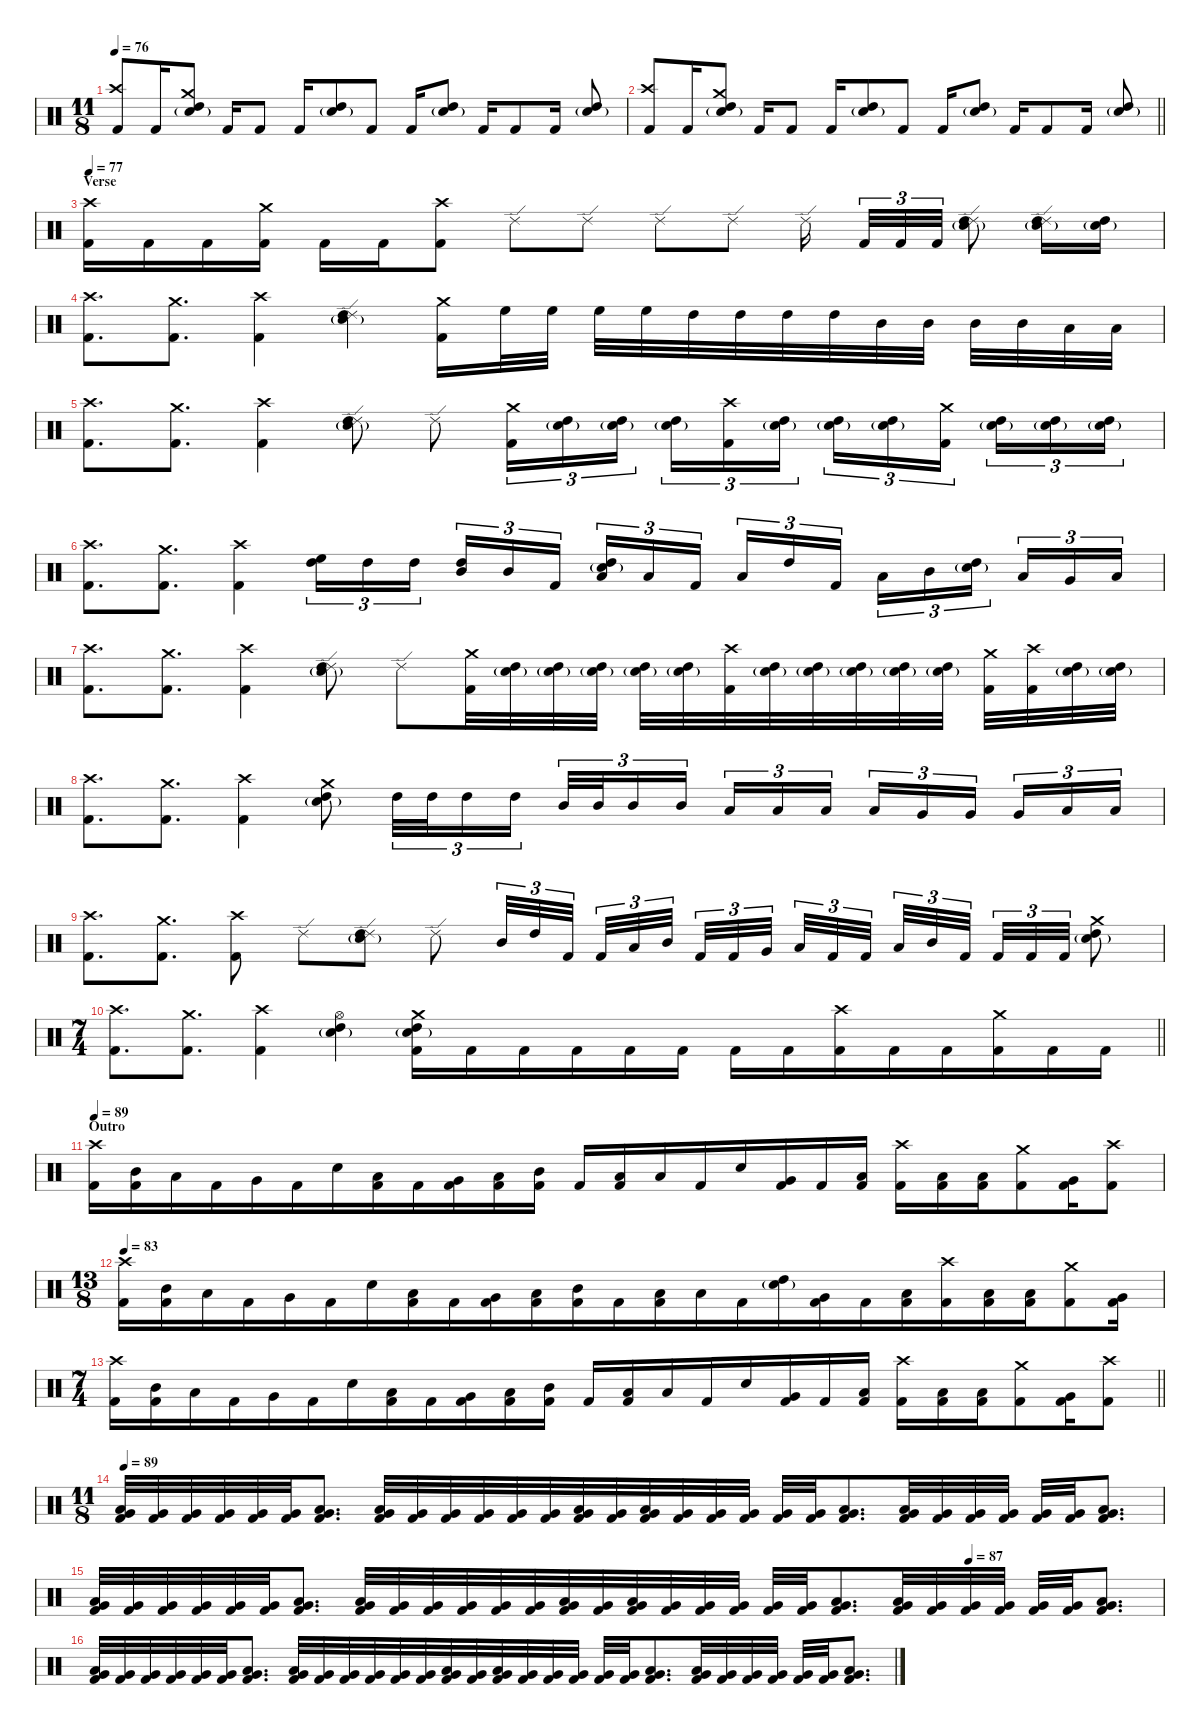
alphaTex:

\defaultSystemsLayout 4
\hideDynamics
\bracketExtendMode nobrackets
\singleTrackTrackNamePolicy hidden
\multiTrackTrackNamePolicy hidden
\otherSystemsTrackNameOrientation horizontal
\track ("Drums" "drm.") {instrument percussion}
\staff {score}
\articulation defaults
\ts (11 8)
\tempo 76
\clef neutral
\ks c
("Crash high (hit)" "Kick (hit) 2").8{dy f beam Up} "Kick (hit) 2".16{beam Up} ("Crash medium (hit)" "High Tom (hit)" "Snare (hit) 2"{g}).8{beam Up} "Kick (hit) 2".16{beam Up} "Kick (hit) 2".8{beam Up} "Kick (hit) 2".16{beam Up} ("High Tom (hit)" "Snare (hit) 2"{g}).8{beam Up} "Kick (hit) 2".8{beam Up} "Kick (hit) 2".16{beam Up} ("High Tom (hit)" "Snare (hit) 2"{g}).8{beam Up} "Kick (hit) 2".16{beam Up} "Kick (hit) 2".8{beam Up} "Kick (hit) 2".16{beam Up} ("High Tom (hit)" "Snare (hit) 2"{g}).8{beam Up} |
\barLineRight lightlight
("Crash high (hit)" "Kick (hit) 2").8{beam Up} "Kick (hit) 2".16{beam Up} ("Crash medium (hit)" "High Tom (hit)" "Snare (hit) 2"{g}).8{beam Up} "Kick (hit) 2".16{beam Up} "Kick (hit) 2".8{beam Up} "Kick (hit) 2".16{beam Up} ("High Tom (hit)" "Snare (hit) 2"{g}).8{beam Up} "Kick (hit) 2".8{beam Up} "Kick (hit) 2".16{beam Up} ("High Tom (hit)" "Snare (hit) 2"{g}).8{beam Up} "Kick (hit) 2".16{beam Up} "Kick (hit) 2".8{beam Up} "Kick (hit) 2".16{beam Up} ("High Tom (hit)" "Snare (hit) 2"{g}).8{beam Up} |
\section ("" "Verse")
\tempo 77
("Crash high (hit)" "Kick (hit) 2").16{beam Down} "Kick (hit) 2".16{beam Down} "Kick (hit) 2".16{beam Down} ("Crash medium (hit)" "Kick (hit) 2").16{beam Down} "Kick (hit) 2".16{beam Down} "Kick (hit) 2".16{beam Down} ("Crash high (hit)" "Kick (hit) 2").8{beam Down} "Ride (edge) 2".8{beam Down} "Ride (edge) 2".8{beam Down} "Ride (edge) 2".8{beam Down} "Ride (edge) 2".8{beam Down} "Ride (edge) 2".16{beam Down} "Kick (hit) 2".32{tu (3 2) beam Up} "Kick (hit) 2".32{tu (3 2) beam Up} "Kick (hit) 2".32{tu (3 2) beam Up} ("Ride (edge) 2" "High Tom (hit)" "Snare (hit) 2"{g}).8{beam Down} ("Ride (edge) 2" "High Tom (hit)" "Snare (hit) 2"{g}).16{beam Down} ("High Tom (hit)" "Snare (hit) 2"{g}).16{beam Down} |
("Crash high (hit)" "Kick (hit) 2").8{d beam Down} ("Crash medium (hit)" "Kick (hit) 2").8{d beam Down} ("Crash high (hit)" "Kick (hit) 2").4{beam Down} ("Ride (edge) 2" "High Tom (hit)" "Snare (hit) 2"{g}).4{beam Down} ("Crash medium (hit)" "Kick (hit) 2").16{beam Down} "High Floor Tom (hit)".32{beam Down} "High Floor Tom (hit)".32{beam Down} "High Floor Tom (hit)".32{beam Down} "High Floor Tom (hit)".32{beam Down} "High Tom (hit)".32{beam Down} "High Tom (hit)".32{beam Down} "High Tom (hit)".32{beam Down} "High Tom (hit)".32{beam Down} "Mid Tom (hit)".32{beam Down} "Mid Tom (hit)".32{beam Down} "Mid Tom (hit)".32{beam Down} "Mid Tom (hit)".32{beam Down} "Low Tom (hit)".32{beam Down} "Low Tom (hit)".32{beam Down} |
("Crash high (hit)" "Kick (hit) 2").8{d beam Down} ("Crash medium (hit)" "Kick (hit) 2").8{d beam Down} ("Crash high (hit)" "Kick (hit) 2").4{beam Down} ("Ride (edge) 2" "High Tom (hit)" "Snare (hit) 2"{g}).8{beam Down} "Ride (edge) 2".8{beam Down} ("Crash medium (hit)" "Kick (hit) 2").16{tu (3 2) beam Down} ("High Tom (hit)" "Snare (hit) 2"{g}).16{tu (3 2) dy mf beam Down} ("High Tom (hit)" "Snare (hit) 2"{g}).16{tu (3 2) dy f beam Down} ("High Tom (hit)" "Snare (hit) 2"{g}).16{tu (3 2) beam Down} ("Crash high (hit)" "Kick (hit) 2").16{tu (3 2) beam Down} ("High Tom (hit)" "Snare (hit) 2"{g}).16{tu (3 2) dy mf beam Down} ("High Tom (hit)" "Snare (hit) 2"{g}).16{tu (3 2) dy f beam Down} ("High Tom (hit)" "Snare (hit) 2"{g}).16{tu (3 2) beam Down} ("Crash medium (hit)" "Kick (hit) 2").16{tu (3 2) beam Down} ("High Tom (hit)" "Snare (hit) 2"{g}).16{tu (3 2) dy mf beam Down} ("High Tom (hit)" "Snare (hit) 2"{g}).16{tu (3 2) dy f beam Down} ("High Tom (hit)" "Snare (hit) 2"{g}).16{tu (3 2) beam Down} |
("Crash high (hit)" "Kick (hit) 2").8{d beam Down} ("Crash medium (hit)" "Kick (hit) 2").8{d beam Down} ("Crash high (hit)" "Kick (hit) 2").4{beam Down} ("High Floor Tom (hit)" "High Tom (hit)").16{tu (3 2) beam Down} "High Tom (hit)".16{tu (3 2) beam Down} "High Tom (hit)".16{tu (3 2) beam Down} ("High Tom (hit)" "Mid Tom (hit)").16{tu (3 2) beam Up} "Mid Tom (hit)".16{tu (3 2) beam Up} "Kick (hit) 2".16{tu (3 2) beam Up} ("High Tom (hit)" "Snare (hit) 2"{g} "Low Tom (hit)").16{tu (3 2) beam Up} "Low Tom (hit)".16{tu (3 2) beam Up} "Kick (hit) 2".16{tu (3 2) beam Up} "Low Tom (hit)".16{tu (3 2) beam Up} "High Tom (hit)".16{tu (3 2) beam Up} "Kick (hit) 2".16{tu (3 2) beam Up} "Low Tom (hit)".16{tu (3 2) beam Down} "Mid Tom (hit)".16{tu (3 2) beam Down} ("High Tom (hit)" "Snare (hit) 2"{g}).16{tu (3 2) beam Down} "Low Tom (hit)".16{tu (3 2) beam Up} "Very Low Tom (hit)".16{tu (3 2) beam Up} "Low Floor Tom (hit)".16{tu (3 2) beam Up} |
("Crash high (hit)" "Kick (hit) 2").8{d beam Down} ("Crash medium (hit)" "Kick (hit) 2").8{d beam Down} ("Crash high (hit)" "Kick (hit) 2").4{beam Down} ("Ride (edge) 2" "High Tom (hit)" "Snare (hit) 2"{g}).8{beam Down} "Ride (edge) 2".8{beam Down} ("Crash medium (hit)" "Kick (hit) 2").32{beam Down} ("High Tom (hit)" "Snare (hit) 2"{g}).32{beam Down} ("High Tom (hit)" "Snare (hit) 2"{g}).32{beam Down} ("High Tom (hit)" "Snare (hit) 2"{g}).32{beam Down} ("High Tom (hit)" "Snare (hit) 2"{g}).32{beam Down} ("High Tom (hit)" "Snare (hit) 2"{g}).32{beam Down} ("Crash high (hit)" "Kick (hit) 2").32{beam Down} ("High Tom (hit)" "Snare (hit) 2"{g}).32{beam Down} ("High Tom (hit)" "Snare (hit) 2"{g}).32{beam Down} ("High Tom (hit)" "Snare (hit) 2"{g}).32{beam Down} ("High Tom (hit)" "Snare (hit) 2"{g}).32{beam Down} ("High Tom (hit)" "Snare (hit) 2"{g}).32{beam Down} ("Crash medium (hit)" "Kick (hit) 2").32{beam Down} ("Crash high (hit)" "Kick (hit) 2").32{beam Down} ("High Tom (hit)" "Snare (hit) 2"{g}).32{beam Down} ("High Tom (hit)" "Snare (hit) 2"{g}).32{beam Down} |
("Crash high (hit)" "Kick (hit) 2").8{d beam Down} ("Crash medium (hit)" "Kick (hit) 2").8{d beam Down} ("Crash high (hit)" "Kick (hit) 2").4{beam Down} ("Crash medium (hit)" "High Tom (hit)" "Snare (hit) 2"{g}).8{beam Down} "High Tom (hit)".32{tu (3 2) beam Down} "High Tom (hit)".32{tu (3 2) beam Down} "High Tom (hit)".16{tu (3 2) beam Down} "High Tom (hit)".16{tu (3 2) beam Down} "Mid Tom (hit)".32{tu (3 2) beam Up} "Mid Tom (hit)".32{tu (3 2) beam Up} "Mid Tom (hit)".16{tu (3 2) beam Up} "Mid Tom (hit)".16{tu (3 2) beam Up} "Low Tom (hit)".16{tu (3 2) beam Up} "Low Tom (hit)".16{tu (3 2) beam Up} "Low Tom (hit)".16{tu (3 2) beam Up} "Low Tom (hit)".16{tu (3 2) beam Up} "Very Low Tom (hit)".16{tu (3 2) beam Up} "Very Low Tom (hit)".16{tu (3 2) beam Up} "Very Low Tom (hit)".16{tu (3 2) beam Up} "Low Floor Tom (hit)".16{tu (3 2) beam Up} "Low Floor Tom (hit)".16{tu (3 2) beam Up} |
("Crash high (hit)" "Kick (hit) 2").8{d beam Down} ("Crash medium (hit)" "Kick (hit) 2").8{d beam Down} ("Crash high (hit)" "Kick (hit) 2").8{beam Down} "Ride (edge) 2".8{beam Down} ("Ride (edge) 2" "High Tom (hit)" "Snare (hit) 2"{g}).8{beam Down} "Ride (edge) 2".8{beam Down} "Mid Tom (hit)".32{tu (3 2) beam Up} "High Tom (hit)".32{tu (3 2) beam Up} "Kick (hit) 2".32{tu (3 2) beam Up} "Kick (hit) 2".32{tu (3 2) beam Up} "Low Tom (hit)".32{tu (3 2) beam Up} "Mid Tom (hit)".32{tu (3 2) beam Up} "Kick (hit) 2".32{tu (3 2) beam Up} "Kick (hit) 2".32{tu (3 2) beam Up} "Very Low Tom (hit)".32{tu (3 2) beam Up} "Low Tom (hit)".32{tu (3 2) beam Up} "Kick (hit) 2".32{tu (3 2) beam Up} "Kick (hit) 2".32{tu (3 2) beam Up} "Low Tom (hit)".32{tu (3 2) beam Up} "Mid Tom (hit)".32{tu (3 2) beam Up} "Kick (hit) 2".32{tu (3 2) beam Up} "Kick (hit) 2".32{tu (3 2) beam Up} "Kick (hit) 2".32{tu (3 2) beam Up} "Kick (hit) 2".32{tu (3 2) beam Up} ("Crash medium (hit)" "High Tom (hit)" "Snare (hit) 2"{g}).8{beam Down} |
\ts (7 4)
\beaming (8 6 4 4)
\barLineRight lightlight
("Crash high (hit)" "Kick (hit) 2").8{d beam Down} ("Crash medium (hit)" "Kick (hit) 2").8{d beam Down} ("Crash high (hit)" "Kick (hit) 2").4{beam Down} ("Hi-Hat (open)" "High Tom (hit)" "Snare (hit) 2"{g}).4{beam Down} ("Crash medium (hit)" "High Tom (hit)" "Snare (hit) 2"{g} "Kick (hit) 2").16{beam Down} "Kick (hit) 2".16{beam Down} "Kick (hit) 2".16{beam Down} "Kick (hit) 2".16{beam Down} "Kick (hit) 2".16{beam Down} "Kick (hit) 2".16{beam Down} "Kick (hit) 2".16{beam Down} "Kick (hit) 2".16{beam Down} ("Crash high (hit)" "Kick (hit) 2").16{beam Down} "Kick (hit) 2".16{beam Down} "Kick (hit) 2".16{beam Down} ("Crash medium (hit)" "Kick (hit) 2").16{beam Down} "Kick (hit) 2".16{beam Down} "Kick (hit) 2".16{beam Down} |
\section ("" "Outro")
\tempo 89
("Crash high (hit)" "Kick (hit) 2").16{beam Down} ("Mid Tom (hit)" "Kick (hit) 2").16{beam Down} "Low Floor Tom (hit)".16{beam Down} "Kick (hit) 2".16{beam Down} "Very Low Tom (hit)".16{beam Down} "Kick (hit) 2".16{beam Down} "Snare (hit) 2".16{beam Down} ("Low Tom (hit)" "Kick (hit) 2").16{beam Down} "Kick (hit) 2".16{beam Down} ("Very Low Tom (hit)" "Kick (hit) 2").16{beam Down} ("Low Floor Tom (hit)" "Kick (hit) 2").16{beam Down} ("Mid Tom (hit)" "Kick (hit) 2").16{beam Down} "Kick (hit) 2".16{beam Up} ("Low Tom (hit)" "Kick (hit) 2").16{beam Up} "Low Floor Tom (hit)".16{beam Up} "Kick (hit) 2".16{beam Up} "Snare (hit) 2".16{beam Up} ("Very Low Tom (hit)" "Kick (hit) 2").16{beam Up} "Kick (hit) 2".16{beam Up} ("Low Floor Tom (hit)" "Kick (hit) 2").16{beam Up} ("Crash high (hit)" "Kick (hit) 2").16{beam Down} ("Low Tom (hit)" "Kick (hit) 2").16{beam Down} ("Low Tom (hit)" "Kick (hit) 2").16{beam Down} ("Crash medium (hit)" "Kick (hit) 2").8{beam Down} ("Very Low Tom (hit)" "Kick (hit) 2").16{beam Down} ("Crash high (hit)" "Kick (hit) 2").8{beam Down} |
\ts (13 8)
\beaming (8 13)
\tempo 83
("Crash high (hit)" "Kick (hit) 2").16{beam Down} ("Mid Tom (hit)" "Kick (hit) 2").16{beam Down} "Low Floor Tom (hit)".16{beam Down} "Kick (hit) 2".16{beam Down} "Very Low Tom (hit)".16{beam Down} "Kick (hit) 2".16{beam Down} "Snare (hit) 2".16{beam Down} ("Low Tom (hit)" "Kick (hit) 2").16{beam Down} "Kick (hit) 2".16{beam Down} ("Very Low Tom (hit)" "Kick (hit) 2").16{beam Down} ("Low Floor Tom (hit)" "Kick (hit) 2").16{beam Down} ("Mid Tom (hit)" "Kick (hit) 2").16{beam Down} "Kick (hit) 2".16{beam Down} ("Low Tom (hit)" "Kick (hit) 2").16{beam Down} "Low Floor Tom (hit)".16{beam Down} "Kick (hit) 2".16{beam Down} ("High Tom (hit)" "Snare (hit) 2"{g}).16{beam Down} ("Very Low Tom (hit)" "Kick (hit) 2").16{beam Down} "Kick (hit) 2".16{beam Down} ("Low Floor Tom (hit)" "Kick (hit) 2").16{beam Down} ("Crash high (hit)" "Kick (hit) 2").16{beam Down} ("Low Tom (hit)" "Kick (hit) 2").16{beam Down} ("Low Tom (hit)" "Kick (hit) 2").16{beam Down} ("Crash medium (hit)" "Kick (hit) 2").8{beam Down} ("Very Low Tom (hit)" "Kick (hit) 2").16{beam Down} |
\ts (7 4)
\beaming (8 6 4 4)
\barLineRight lightlight
("Crash high (hit)" "Kick (hit) 2").16{beam Down} ("Mid Tom (hit)" "Kick (hit) 2").16{beam Down} "Low Floor Tom (hit)".16{beam Down} "Kick (hit) 2".16{beam Down} "Very Low Tom (hit)".16{beam Down} "Kick (hit) 2".16{beam Down} "Snare (hit) 2".16{beam Down} ("Low Tom (hit)" "Kick (hit) 2").16{beam Down} "Kick (hit) 2".16{beam Down} ("Very Low Tom (hit)" "Kick (hit) 2").16{beam Down} ("Low Floor Tom (hit)" "Kick (hit) 2").16{beam Down} ("Mid Tom (hit)" "Kick (hit) 2").16{beam Down} "Kick (hit) 2".16{beam Up} ("Low Tom (hit)" "Kick (hit) 2").16{beam Up} "Low Floor Tom (hit)".16{beam Up} "Kick (hit) 2".16{beam Up} "Snare (hit) 2".16{beam Up} ("Very Low Tom (hit)" "Kick (hit) 2").16{beam Up} "Kick (hit) 2".16{beam Up} ("Low Floor Tom (hit)" "Kick (hit) 2").16{beam Up} ("Crash high (hit)" "Kick (hit) 2").16{beam Down} ("Low Tom (hit)" "Kick (hit) 2").16{beam Down} ("Low Tom (hit)" "Kick (hit) 2").16{beam Down} ("Crash medium (hit)" "Kick (hit) 2").8{beam Down} ("Very Low Tom (hit)" "Kick (hit) 2").16{beam Down} ("Crash high (hit)" "Kick (hit) 2").8{beam Down} |
\ts (11 8)
\beaming (8 3 3 3 2)
\section ("" "")
\tempo 89
("Very Low Tom (hit)" "Low Floor Tom (hit)" "Kick (hit) 2").32{beam Up} ("Very Low Tom (hit)" "Kick (hit) 2").32{beam Up} ("Very Low Tom (hit)" "Kick (hit) 2").32{beam Up} ("Very Low Tom (hit)" "Kick (hit) 2").32{beam Up} ("Very Low Tom (hit)" "Kick (hit) 2").32{beam Up} ("Very Low Tom (hit)" "Kick (hit) 2").32{beam Up} ("Very Low Tom (hit)" "Low Floor Tom (hit)" "Kick (hit) 2").8{d beam Up} ("Very Low Tom (hit)" "Low Floor Tom (hit)" "Kick (hit) 2").32{beam Up} ("Very Low Tom (hit)" "Kick (hit) 2").32{beam Up} ("Very Low Tom (hit)" "Kick (hit) 2").32{beam Up} ("Very Low Tom (hit)" "Kick (hit) 2").32{beam Up} ("Very Low Tom (hit)" "Kick (hit) 2").32{beam Up} ("Very Low Tom (hit)" "Kick (hit) 2").32{beam Up} ("Very Low Tom (hit)" "Low Floor Tom (hit)" "Kick (hit) 2").32{beam Up} ("Very Low Tom (hit)" "Kick (hit) 2").32{beam Up} ("Very Low Tom (hit)" "Low Floor Tom (hit)" "Kick (hit) 2").32{beam Up} ("Very Low Tom (hit)" "Kick (hit) 2").32{beam Up} ("Very Low Tom (hit)" "Kick (hit) 2").32{beam Up} ("Very Low Tom (hit)" "Kick (hit) 2").32{beam Up} ("Very Low Tom (hit)" "Kick (hit) 2").32{beam Up} ("Very Low Tom (hit)" "Kick (hit) 2").32{beam Up} ("Very Low Tom (hit)" "Low Floor Tom (hit)" "Kick (hit) 2").8{d beam Up} ("Very Low Tom (hit)" "Low Floor Tom (hit)" "Kick (hit) 2").32{beam Up} ("Very Low Tom (hit)" "Kick (hit) 2").32{beam Up} ("Very Low Tom (hit)" "Kick (hit) 2").32{beam Up} ("Very Low Tom (hit)" "Kick (hit) 2").32{beam Up} ("Very Low Tom (hit)" "Kick (hit) 2").32{beam Up} ("Very Low Tom (hit)" "Kick (hit) 2").32{beam Up} ("Very Low Tom (hit)" "Low Floor Tom (hit)" "Kick (hit) 2").8{d beam Up} |
\tempo (87 0.818182)
("Very Low Tom (hit)" "Low Floor Tom (hit)" "Kick (hit) 2").32{beam Up} ("Very Low Tom (hit)" "Kick (hit) 2").32{beam Up} ("Very Low Tom (hit)" "Kick (hit) 2").32{beam Up} ("Very Low Tom (hit)" "Kick (hit) 2").32{beam Up} ("Very Low Tom (hit)" "Kick (hit) 2").32{beam Up} ("Very Low Tom (hit)" "Kick (hit) 2").32{beam Up} ("Very Low Tom (hit)" "Low Floor Tom (hit)" "Kick (hit) 2").8{d beam Up} ("Very Low Tom (hit)" "Low Floor Tom (hit)" "Kick (hit) 2").32{beam Up} ("Very Low Tom (hit)" "Kick (hit) 2").32{beam Up} ("Very Low Tom (hit)" "Kick (hit) 2").32{beam Up} ("Very Low Tom (hit)" "Kick (hit) 2").32{beam Up} ("Very Low Tom (hit)" "Kick (hit) 2").32{beam Up} ("Very Low Tom (hit)" "Kick (hit) 2").32{beam Up} ("Very Low Tom (hit)" "Low Floor Tom (hit)" "Kick (hit) 2").32{beam Up} ("Very Low Tom (hit)" "Kick (hit) 2").32{beam Up} ("Very Low Tom (hit)" "Low Floor Tom (hit)" "Kick (hit) 2").32{beam Up} ("Very Low Tom (hit)" "Kick (hit) 2").32{beam Up} ("Very Low Tom (hit)" "Kick (hit) 2").32{beam Up} ("Very Low Tom (hit)" "Kick (hit) 2").32{beam Up} ("Very Low Tom (hit)" "Kick (hit) 2").32{beam Up} ("Very Low Tom (hit)" "Kick (hit) 2").32{beam Up} ("Very Low Tom (hit)" "Low Floor Tom (hit)" "Kick (hit) 2").8{d beam Up} ("Very Low Tom (hit)" "Low Floor Tom (hit)" "Kick (hit) 2").32{beam Up} ("Very Low Tom (hit)" "Kick (hit) 2").32{beam Up} ("Very Low Tom (hit)" "Kick (hit) 2").32{beam Up} ("Very Low Tom (hit)" "Kick (hit) 2").32{beam Up} ("Very Low Tom (hit)" "Kick (hit) 2").32{beam Up} ("Very Low Tom (hit)" "Kick (hit) 2").32{beam Up} ("Very Low Tom (hit)" "Low Floor Tom (hit)" "Kick (hit) 2").8{d beam Up} |
("Very Low Tom (hit)" "Low Floor Tom (hit)" "Kick (hit) 2").32{beam Up} ("Very Low Tom (hit)" "Kick (hit) 2").32{beam Up} ("Very Low Tom (hit)" "Kick (hit) 2").32{beam Up} ("Very Low Tom (hit)" "Kick (hit) 2").32{beam Up} ("Very Low Tom (hit)" "Kick (hit) 2").32{beam Up} ("Very Low Tom (hit)" "Kick (hit) 2").32{beam Up} ("Very Low Tom (hit)" "Low Floor Tom (hit)" "Kick (hit) 2").8{d beam Up} ("Very Low Tom (hit)" "Low Floor Tom (hit)" "Kick (hit) 2").32{beam Up} ("Very Low Tom (hit)" "Kick (hit) 2").32{beam Up} ("Very Low Tom (hit)" "Kick (hit) 2").32{beam Up} ("Very Low Tom (hit)" "Kick (hit) 2").32{beam Up} ("Very Low Tom (hit)" "Kick (hit) 2").32{beam Up} ("Very Low Tom (hit)" "Kick (hit) 2").32{beam Up} ("Very Low Tom (hit)" "Low Floor Tom (hit)" "Kick (hit) 2").32{beam Up} ("Very Low Tom (hit)" "Kick (hit) 2").32{beam Up} ("Very Low Tom (hit)" "Low Floor Tom (hit)" "Kick (hit) 2").32{beam Up} ("Very Low Tom (hit)" "Kick (hit) 2").32{beam Up} ("Very Low Tom (hit)" "Kick (hit) 2").32{beam Up} ("Very Low Tom (hit)" "Kick (hit) 2").32{beam Up} ("Very Low Tom (hit)" "Kick (hit) 2").32{beam Up} ("Very Low Tom (hit)" "Kick (hit) 2").32{beam Up} ("Very Low Tom (hit)" "Low Floor Tom (hit)" "Kick (hit) 2").8{d beam Up} ("Very Low Tom (hit)" "Low Floor Tom (hit)" "Kick (hit) 2").32{beam Up} ("Very Low Tom (hit)" "Kick (hit) 2").32{beam Up} ("Very Low Tom (hit)" "Kick (hit) 2").32{beam Up} ("Very Low Tom (hit)" "Kick (hit) 2").32{beam Up} ("Very Low Tom (hit)" "Kick (hit) 2").32{beam Up} ("Very Low Tom (hit)" "Kick (hit) 2").32{beam Up} ("Very Low Tom (hit)" "Low Floor Tom (hit)" "Kick (hit) 2").8{d beam Up}
